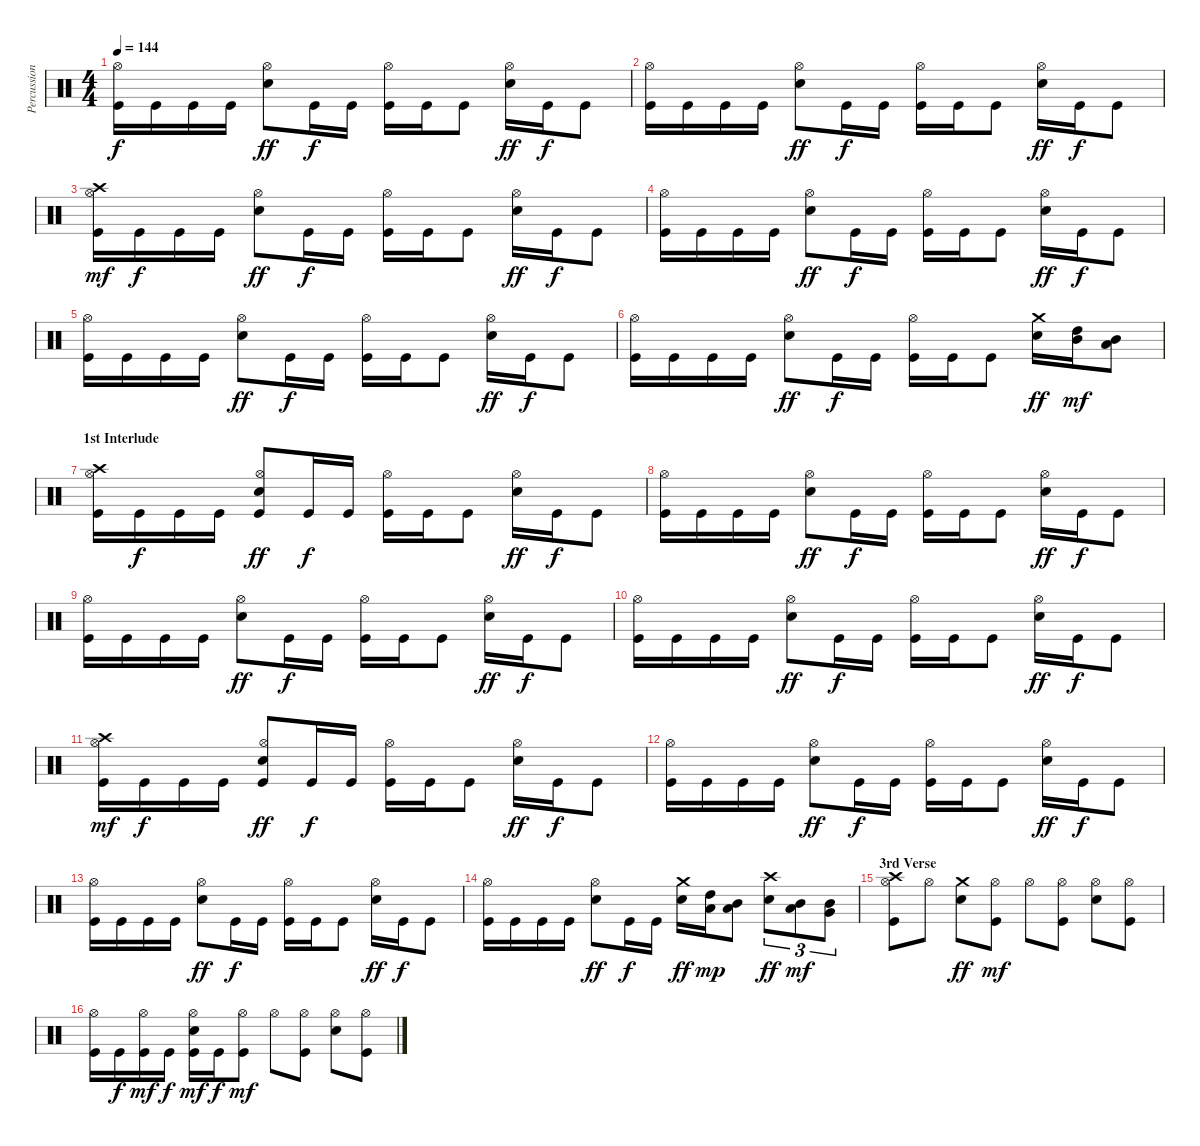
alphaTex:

\track ("Percussions" "Percussion") {instrument percussion}
\staff {score}
\articulation defaults
\ts (4 4)
\tempo 144
\clef neutral
\ks c
("Kick (hit)" "Hi-Hat (open)").16{dy f} "Kick (hit)".16 "Kick (hit)".16 "Kick (hit)".16 ("Electric Snare (hit)" "Hi-Hat (open)").8{dy ff} "Kick (hit)".16{dy f} "Kick (hit)".16 ("Kick (hit)" "Hi-Hat (open)").16 "Kick (hit)".16 "Kick (hit)".8 ("Electric Snare (hit)" "Hi-Hat (open)").16{dy ff} "Kick (hit)".16{dy f} "Kick (hit)".8 |
("Kick (hit)" "Hi-Hat (open)").16 "Kick (hit)".16 "Kick (hit)".16 "Kick (hit)".16 ("Electric Snare (hit)" "Hi-Hat (open)").8{dy ff} "Kick (hit)".16{dy f} "Kick (hit)".16 ("Kick (hit)" "Hi-Hat (open)").16 "Kick (hit)".16 "Kick (hit)".8 ("Electric Snare (hit)" "Hi-Hat (open)").16{dy ff} "Kick (hit)".16{dy f} "Kick (hit)".8 |
("Kick (hit)" "Hi-Hat (open)" "Crash high (hit)").16{dy mf} "Kick (hit)".16{dy f} "Kick (hit)".16 "Kick (hit)".16 ("Electric Snare (hit)" "Hi-Hat (open)").8{dy ff} "Kick (hit)".16{dy f} "Kick (hit)".16 ("Kick (hit)" "Hi-Hat (open)").16 "Kick (hit)".16 "Kick (hit)".8 ("Electric Snare (hit)" "Hi-Hat (open)").16{dy ff} "Kick (hit)".16{dy f} "Kick (hit)".8 |
("Kick (hit)" "Hi-Hat (open)").16 "Kick (hit)".16 "Kick (hit)".16 "Kick (hit)".16 ("Electric Snare (hit)" "Hi-Hat (open)").8{dy ff} "Kick (hit)".16{dy f} "Kick (hit)".16 ("Kick (hit)" "Hi-Hat (open)").16 "Kick (hit)".16 "Kick (hit)".8 ("Electric Snare (hit)" "Hi-Hat (open)").16{dy ff} "Kick (hit)".16{dy f} "Kick (hit)".8 |
("Kick (hit)" "Hi-Hat (open)").16 "Kick (hit)".16 "Kick (hit)".16 "Kick (hit)".16 ("Electric Snare (hit)" "Hi-Hat (open)").8{dy ff} "Kick (hit)".16{dy f} "Kick (hit)".16 ("Kick (hit)" "Hi-Hat (open)").16 "Kick (hit)".16 "Kick (hit)".8 ("Electric Snare (hit)" "Hi-Hat (open)").16{dy ff} "Kick (hit)".16{dy f} "Kick (hit)".8 |
("Kick (hit)" "Hi-Hat (open)").16 "Kick (hit)".16 "Kick (hit)".16 "Kick (hit)".16 ("Electric Snare (hit)" "Hi-Hat (open)").8{dy ff} "Kick (hit)".16{dy f} "Kick (hit)".16 ("Kick (hit)" "Hi-Hat (open)").16 "Kick (hit)".16 "Kick (hit)".8 ("Electric Snare (hit)" "Crash medium (hit)").16{dy ff} ("Mid Tom (hit)" "High Tom (hit)").16{dy mf} ("Low Tom (hit)" "Mid Tom (hit)").8 |
\section ("" "1st Interlude")
("Kick (hit)" "Hi-Hat (open)" "Crash high (hit)").16 "Kick (hit)".16{dy f} "Kick (hit)".16 "Kick (hit)".16 ("Kick (hit)" "Electric Snare (hit)" "Hi-Hat (open)").8{dy ff} "Kick (hit)".16{dy f} "Kick (hit)".16 ("Kick (hit)" "Hi-Hat (open)").16 "Kick (hit)".16 "Kick (hit)".8 ("Electric Snare (hit)" "Hi-Hat (open)").16{dy ff} "Kick (hit)".16{dy f} "Kick (hit)".8 |
("Kick (hit)" "Hi-Hat (open)").16 "Kick (hit)".16 "Kick (hit)".16 "Kick (hit)".16 ("Electric Snare (hit)" "Hi-Hat (open)").8{dy ff} "Kick (hit)".16{dy f} "Kick (hit)".16 ("Kick (hit)" "Hi-Hat (open)").16 "Kick (hit)".16 "Kick (hit)".8 ("Electric Snare (hit)" "Hi-Hat (open)").16{dy ff} "Kick (hit)".16{dy f} "Kick (hit)".8 |
("Kick (hit)" "Hi-Hat (open)").16 "Kick (hit)".16 "Kick (hit)".16 "Kick (hit)".16 ("Electric Snare (hit)" "Hi-Hat (open)").8{dy ff} "Kick (hit)".16{dy f} "Kick (hit)".16 ("Kick (hit)" "Hi-Hat (open)").16 "Kick (hit)".16 "Kick (hit)".8 ("Electric Snare (hit)" "Hi-Hat (open)").16{dy ff} "Kick (hit)".16{dy f} "Kick (hit)".8 |
("Kick (hit)" "Hi-Hat (open)").16 "Kick (hit)".16 "Kick (hit)".16 "Kick (hit)".16 ("Electric Snare (hit)" "Hi-Hat (open)").8{dy ff} "Kick (hit)".16{dy f} "Kick (hit)".16 ("Kick (hit)" "Hi-Hat (open)").16 "Kick (hit)".16 "Kick (hit)".8 ("Electric Snare (hit)" "Hi-Hat (open)").16{dy ff} "Kick (hit)".16{dy f} "Kick (hit)".8 |
("Kick (hit)" "Hi-Hat (open)" "Crash high (hit)").16{dy mf} "Kick (hit)".16{dy f} "Kick (hit)".16 "Kick (hit)".16 ("Kick (hit)" "Electric Snare (hit)" "Hi-Hat (open)").8{dy ff} "Kick (hit)".16{dy f} "Kick (hit)".16 ("Kick (hit)" "Hi-Hat (open)").16 "Kick (hit)".16 "Kick (hit)".8 ("Electric Snare (hit)" "Hi-Hat (open)").16{dy ff} "Kick (hit)".16{dy f} "Kick (hit)".8 |
("Kick (hit)" "Hi-Hat (open)").16 "Kick (hit)".16 "Kick (hit)".16 "Kick (hit)".16 ("Electric Snare (hit)" "Hi-Hat (open)").8{dy ff} "Kick (hit)".16{dy f} "Kick (hit)".16 ("Kick (hit)" "Hi-Hat (open)").16 "Kick (hit)".16 "Kick (hit)".8 ("Electric Snare (hit)" "Hi-Hat (open)").16{dy ff} "Kick (hit)".16{dy f} "Kick (hit)".8 |
("Kick (hit)" "Hi-Hat (open)").16 "Kick (hit)".16 "Kick (hit)".16 "Kick (hit)".16 ("Electric Snare (hit)" "Hi-Hat (open)").8{dy ff} "Kick (hit)".16{dy f} "Kick (hit)".16 ("Kick (hit)" "Hi-Hat (open)").16 "Kick (hit)".16 "Kick (hit)".8 ("Electric Snare (hit)" "Hi-Hat (open)").16{dy ff} "Kick (hit)".16{dy f} "Kick (hit)".8 |
("Kick (hit)" "Hi-Hat (open)").16 "Kick (hit)".16 "Kick (hit)".16 "Kick (hit)".16 ("Electric Snare (hit)" "Hi-Hat (open)").8{dy ff} "Kick (hit)".16{dy f} "Kick (hit)".16 ("Electric Snare (hit)" "Crash medium (hit)").16{dy ff} ("Low Tom (hit)" "High Tom (hit)").16{dy mp} ("Low Tom (hit)" "Mid Tom (hit)").8 ("Electric Snare (hit)" "Crash high (hit)").8{tu (3 2) dy ff} ("Low Tom (hit)" "Mid Tom (hit)").8{tu (3 2) dy mf} ("Very Low Tom (hit)" "Mid Tom (hit)").8{tu (3 2)} |
\section ("" "3rd Verse")
("Kick (hit)" "Hi-Hat (open)" "Crash high (hit)").8 "Hi-Hat (open)".8 ("Electric Snare (hit)" "Crash medium (hit)").8{dy ff} ("Kick (hit)" "Hi-Hat (open)").8{dy mf} "Hi-Hat (open)".8 ("Kick (hit)" "Hi-Hat (open)").8 ("Electric Snare (hit)" "Hi-Hat (open)").8 ("Kick (hit)" "Hi-Hat (open)").8 |
("Kick (hit)" "Hi-Hat (open)").16 "Kick (hit)".16{dy f} ("Kick (hit)" "Hi-Hat (open)").16{dy mf} "Kick (hit)".16{dy f} ("Kick (hit)" "Electric Snare (hit)" "Hi-Hat (open)").16{dy mf} "Kick (hit)".16{dy f} ("Kick (hit)" "Hi-Hat (open)").8{dy mf} "Hi-Hat (open)".8 ("Kick (hit)" "Hi-Hat (open)").8 ("Electric Snare (hit)" "Hi-Hat (open)").8 ("Kick (hit)" "Hi-Hat (open)").8
